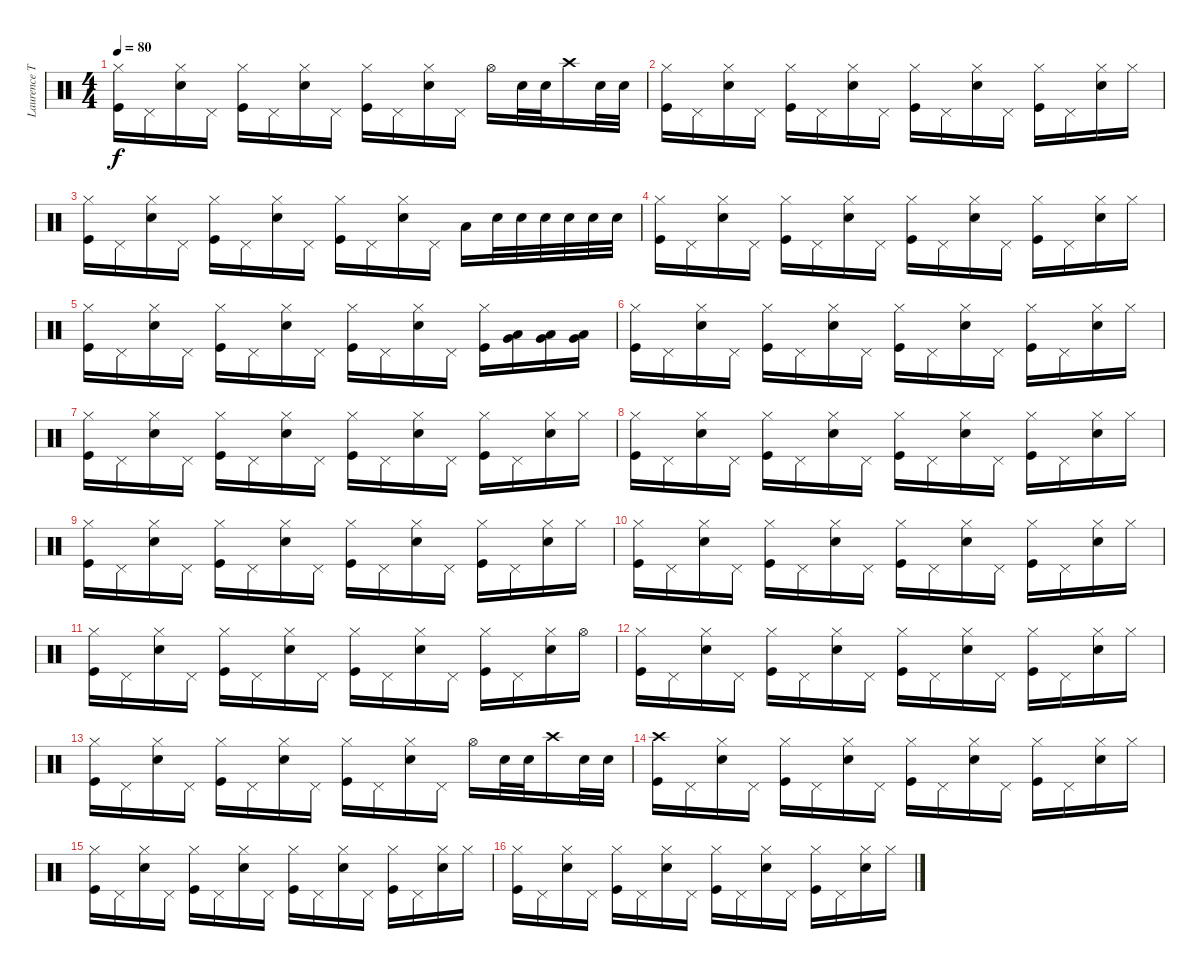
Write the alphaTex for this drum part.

\track ("Laurence Tolhurst (drums)" "Laurence T") {instrument percussion}
\staff {score}
\articulation defaults
\ts (4 4)
\tempo 80
\clef neutral
\ks c
("Kick (hit)" "Hi-Hat (closed)").16{dy f} "Pedal Hi-Hat (hit)".16 ("Snare (hit) 2" "Hi-Hat (closed)").16 "Pedal Hi-Hat (hit)".16 ("Kick (hit)" "Hi-Hat (closed)").16 "Pedal Hi-Hat (hit)".16 ("Snare (hit) 2" "Hi-Hat (closed)").16 "Pedal Hi-Hat (hit)".16 ("Kick (hit)" "Hi-Hat (closed)").16 "Pedal Hi-Hat (hit)".16 ("Snare (hit) 2" "Hi-Hat (closed)").16 "Pedal Hi-Hat (hit)".16 "Hi-Hat (open)".16 "Snare (hit) 2".32 "Snare (hit) 2".32 "Crash high (hit)".16 "Snare (hit) 2".32 "Snare (hit) 2".32 |
("Kick (hit)" "Hi-Hat (closed)").16 "Pedal Hi-Hat (hit)".16 ("Snare (hit) 2" "Hi-Hat (closed)").16 "Pedal Hi-Hat (hit)".16 ("Kick (hit)" "Hi-Hat (closed)").16 "Pedal Hi-Hat (hit)".16 ("Snare (hit) 2" "Hi-Hat (closed)").16 "Pedal Hi-Hat (hit)".16 ("Kick (hit)" "Hi-Hat (closed)").16 "Pedal Hi-Hat (hit)".16 ("Snare (hit) 2" "Hi-Hat (closed)").16 "Pedal Hi-Hat (hit)".16 ("Kick (hit)" "Hi-Hat (closed)").16 "Pedal Hi-Hat (hit)".16 ("Snare (hit) 2" "Hi-Hat (closed)").16 "Hi-Hat (closed)".16 |
("Kick (hit)" "Hi-Hat (closed)").16 "Pedal Hi-Hat (hit)".16 ("Snare (hit) 2" "Hi-Hat (closed)").16 "Pedal Hi-Hat (hit)".16 ("Kick (hit)" "Hi-Hat (closed)").16 "Pedal Hi-Hat (hit)".16 ("Snare (hit) 2" "Hi-Hat (closed)").16 "Pedal Hi-Hat (hit)".16 ("Kick (hit)" "Hi-Hat (closed)").16 "Pedal Hi-Hat (hit)".16 ("Snare (hit) 2" "Hi-Hat (closed)").16 "Pedal Hi-Hat (hit)".16 "Low Tom (hit)".16 "Snare (hit) 2".32 "Snare (hit) 2".32 "Snare (hit) 2".32 "Snare (hit) 2".32 "Snare (hit) 2".32 "Snare (hit) 2".32 |
("Kick (hit)" "Hi-Hat (closed)").16 "Pedal Hi-Hat (hit)".16 ("Snare (hit) 2" "Hi-Hat (closed)").16 "Pedal Hi-Hat (hit)".16 ("Kick (hit)" "Hi-Hat (closed)").16 "Pedal Hi-Hat (hit)".16 ("Snare (hit) 2" "Hi-Hat (closed)").16 "Pedal Hi-Hat (hit)".16 ("Kick (hit)" "Hi-Hat (closed)").16 "Pedal Hi-Hat (hit)".16 ("Snare (hit) 2" "Hi-Hat (closed)").16 "Pedal Hi-Hat (hit)".16 ("Kick (hit)" "Hi-Hat (closed)").16 "Pedal Hi-Hat (hit)".16 ("Snare (hit) 2" "Hi-Hat (closed)").16 "Hi-Hat (closed)".16 |
("Kick (hit)" "Hi-Hat (closed)").16 "Pedal Hi-Hat (hit)".16 ("Snare (hit) 2" "Hi-Hat (closed)").16 "Pedal Hi-Hat (hit)".16 ("Kick (hit)" "Hi-Hat (closed)").16 "Pedal Hi-Hat (hit)".16 ("Snare (hit) 2" "Hi-Hat (closed)").16 "Pedal Hi-Hat (hit)".16 ("Kick (hit)" "Hi-Hat (closed)").16 "Pedal Hi-Hat (hit)".16 ("Snare (hit) 2" "Hi-Hat (closed)").16 "Pedal Hi-Hat (hit)".16 ("Kick (hit)" "Hi-Hat (closed)").16 ("Very Low Tom (hit)" "Low Floor Tom (hit)").16 ("Very Low Tom (hit)" "Low Floor Tom (hit)").16 ("Very Low Tom (hit)" "Low Floor Tom (hit)").16 |
("Kick (hit)" "Hi-Hat (closed)").16 "Pedal Hi-Hat (hit)".16 ("Snare (hit) 2" "Hi-Hat (closed)").16 "Pedal Hi-Hat (hit)".16 ("Kick (hit)" "Hi-Hat (closed)").16 "Pedal Hi-Hat (hit)".16 ("Snare (hit) 2" "Hi-Hat (closed)").16 "Pedal Hi-Hat (hit)".16 ("Kick (hit)" "Hi-Hat (closed)").16 "Pedal Hi-Hat (hit)".16 ("Snare (hit) 2" "Hi-Hat (closed)").16 "Pedal Hi-Hat (hit)".16 ("Kick (hit)" "Hi-Hat (closed)").16 "Pedal Hi-Hat (hit)".16 ("Snare (hit) 2" "Hi-Hat (closed)").16 "Hi-Hat (closed)".16 |
("Kick (hit)" "Hi-Hat (closed)").16 "Pedal Hi-Hat (hit)".16 ("Snare (hit) 2" "Hi-Hat (closed)").16 "Pedal Hi-Hat (hit)".16 ("Kick (hit)" "Hi-Hat (closed)").16 "Pedal Hi-Hat (hit)".16 ("Snare (hit) 2" "Hi-Hat (closed)").16 "Pedal Hi-Hat (hit)".16 ("Kick (hit)" "Hi-Hat (closed)").16 "Pedal Hi-Hat (hit)".16 ("Snare (hit) 2" "Hi-Hat (closed)").16 "Pedal Hi-Hat (hit)".16 ("Kick (hit)" "Hi-Hat (closed)").16 "Pedal Hi-Hat (hit)".16 ("Snare (hit) 2" "Hi-Hat (closed)").16 "Hi-Hat (closed)".16 |
("Kick (hit)" "Hi-Hat (closed)").16 "Pedal Hi-Hat (hit)".16 ("Snare (hit) 2" "Hi-Hat (closed)").16 "Pedal Hi-Hat (hit)".16 ("Kick (hit)" "Hi-Hat (closed)").16 "Pedal Hi-Hat (hit)".16 ("Snare (hit) 2" "Hi-Hat (closed)").16 "Pedal Hi-Hat (hit)".16 ("Kick (hit)" "Hi-Hat (closed)").16 "Pedal Hi-Hat (hit)".16 ("Snare (hit) 2" "Hi-Hat (closed)").16 "Pedal Hi-Hat (hit)".16 ("Kick (hit)" "Hi-Hat (closed)").16 "Pedal Hi-Hat (hit)".16 ("Snare (hit) 2" "Hi-Hat (closed)").16 "Hi-Hat (closed)".16 |
("Kick (hit)" "Hi-Hat (closed)").16 "Pedal Hi-Hat (hit)".16 ("Snare (hit) 2" "Hi-Hat (closed)").16 "Pedal Hi-Hat (hit)".16 ("Kick (hit)" "Hi-Hat (closed)").16 "Pedal Hi-Hat (hit)".16 ("Snare (hit) 2" "Hi-Hat (closed)").16 "Pedal Hi-Hat (hit)".16 ("Kick (hit)" "Hi-Hat (closed)").16 "Pedal Hi-Hat (hit)".16 ("Snare (hit) 2" "Hi-Hat (closed)").16 "Pedal Hi-Hat (hit)".16 ("Kick (hit)" "Hi-Hat (closed)").16 "Pedal Hi-Hat (hit)".16 ("Snare (hit) 2" "Hi-Hat (closed)").16 "Hi-Hat (closed)".16 |
("Kick (hit)" "Hi-Hat (closed)").16 "Pedal Hi-Hat (hit)".16 ("Snare (hit) 2" "Hi-Hat (closed)").16 "Pedal Hi-Hat (hit)".16 ("Kick (hit)" "Hi-Hat (closed)").16 "Pedal Hi-Hat (hit)".16 ("Snare (hit) 2" "Hi-Hat (closed)").16 "Pedal Hi-Hat (hit)".16 ("Kick (hit)" "Hi-Hat (closed)").16 "Pedal Hi-Hat (hit)".16 ("Snare (hit) 2" "Hi-Hat (closed)").16 "Pedal Hi-Hat (hit)".16 ("Kick (hit)" "Hi-Hat (closed)").16 "Pedal Hi-Hat (hit)".16 ("Snare (hit) 2" "Hi-Hat (closed)").16 "Hi-Hat (closed)".16 |
("Kick (hit)" "Hi-Hat (closed)").16 "Pedal Hi-Hat (hit)".16 ("Snare (hit) 2" "Hi-Hat (closed)").16 "Pedal Hi-Hat (hit)".16 ("Kick (hit)" "Hi-Hat (closed)").16 "Pedal Hi-Hat (hit)".16 ("Snare (hit) 2" "Hi-Hat (closed)").16 "Pedal Hi-Hat (hit)".16 ("Kick (hit)" "Hi-Hat (closed)").16 "Pedal Hi-Hat (hit)".16 ("Snare (hit) 2" "Hi-Hat (closed)").16 "Pedal Hi-Hat (hit)".16 ("Kick (hit)" "Hi-Hat (closed)").16 "Pedal Hi-Hat (hit)".16 ("Snare (hit) 2" "Hi-Hat (closed)").16 "Hi-Hat (open)".16 |
("Kick (hit)" "Hi-Hat (closed)").16 "Pedal Hi-Hat (hit)".16 ("Snare (hit) 2" "Hi-Hat (closed)").16 "Pedal Hi-Hat (hit)".16 ("Kick (hit)" "Hi-Hat (closed)").16 "Pedal Hi-Hat (hit)".16 ("Snare (hit) 2" "Hi-Hat (closed)").16 "Pedal Hi-Hat (hit)".16 ("Kick (hit)" "Hi-Hat (closed)").16 "Pedal Hi-Hat (hit)".16 ("Snare (hit) 2" "Hi-Hat (closed)").16 "Pedal Hi-Hat (hit)".16 ("Kick (hit)" "Hi-Hat (closed)").16 "Pedal Hi-Hat (hit)".16 ("Snare (hit) 2" "Hi-Hat (closed)").16 "Hi-Hat (closed)".16 |
("Kick (hit)" "Hi-Hat (closed)").16 "Pedal Hi-Hat (hit)".16 ("Snare (hit) 2" "Hi-Hat (closed)").16 "Pedal Hi-Hat (hit)".16 ("Kick (hit)" "Hi-Hat (closed)").16 "Pedal Hi-Hat (hit)".16 ("Snare (hit) 2" "Hi-Hat (closed)").16 "Pedal Hi-Hat (hit)".16 ("Kick (hit)" "Hi-Hat (closed)").16 "Pedal Hi-Hat (hit)".16 ("Snare (hit) 2" "Hi-Hat (closed)").16 "Pedal Hi-Hat (hit)".16 "Hi-Hat (open)".16 "Snare (hit) 2".32 "Snare (hit) 2".32 "Crash high (hit)".16 "Snare (hit) 2".32 "Snare (hit) 2".32 |
("Kick (hit)" "Crash high (hit)").16 "Pedal Hi-Hat (hit)".16 ("Snare (hit) 2" "Hi-Hat (closed)").16 "Pedal Hi-Hat (hit)".16 ("Kick (hit)" "Hi-Hat (closed)").16 "Pedal Hi-Hat (hit)".16 ("Snare (hit) 2" "Hi-Hat (closed)").16 "Pedal Hi-Hat (hit)".16 ("Kick (hit)" "Hi-Hat (closed)").16 "Pedal Hi-Hat (hit)".16 ("Snare (hit) 2" "Hi-Hat (closed)").16 "Pedal Hi-Hat (hit)".16 ("Kick (hit)" "Hi-Hat (closed)").16 "Pedal Hi-Hat (hit)".16 ("Snare (hit) 2" "Hi-Hat (closed)").16 "Hi-Hat (closed)".16 |
("Kick (hit)" "Hi-Hat (closed)").16 "Pedal Hi-Hat (hit)".16 ("Snare (hit) 2" "Hi-Hat (closed)").16 "Pedal Hi-Hat (hit)".16 ("Kick (hit)" "Hi-Hat (closed)").16 "Pedal Hi-Hat (hit)".16 ("Snare (hit) 2" "Hi-Hat (closed)").16 "Pedal Hi-Hat (hit)".16 ("Kick (hit)" "Hi-Hat (closed)").16 "Pedal Hi-Hat (hit)".16 ("Snare (hit) 2" "Hi-Hat (closed)").16 "Pedal Hi-Hat (hit)".16 ("Kick (hit)" "Hi-Hat (closed)").16 "Pedal Hi-Hat (hit)".16 ("Snare (hit) 2" "Hi-Hat (closed)").16 "Hi-Hat (closed)".16 |
("Kick (hit)" "Hi-Hat (closed)").16 "Pedal Hi-Hat (hit)".16 ("Snare (hit) 2" "Hi-Hat (closed)").16 "Pedal Hi-Hat (hit)".16 ("Kick (hit)" "Hi-Hat (closed)").16 "Pedal Hi-Hat (hit)".16 ("Snare (hit) 2" "Hi-Hat (closed)").16 "Pedal Hi-Hat (hit)".16 ("Kick (hit)" "Hi-Hat (closed)").16 "Pedal Hi-Hat (hit)".16 ("Snare (hit) 2" "Hi-Hat (closed)").16 "Pedal Hi-Hat (hit)".16 ("Kick (hit)" "Hi-Hat (closed)").16 "Pedal Hi-Hat (hit)".16 ("Snare (hit) 2" "Hi-Hat (closed)").16 "Hi-Hat (closed)".16
